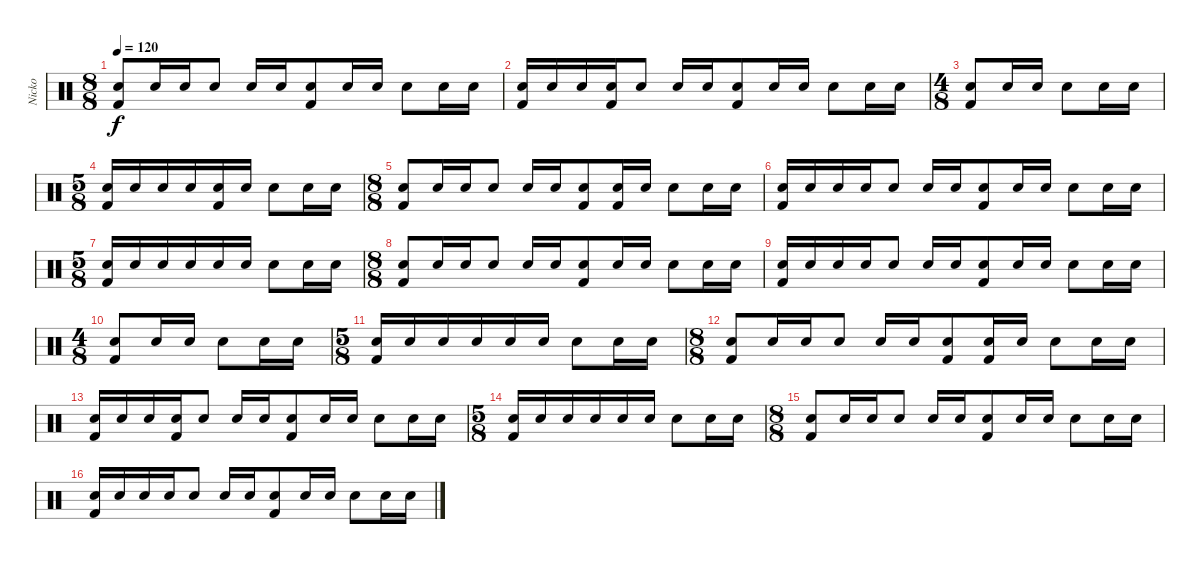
\track ("Nicko" "Nicko") {instrument percussion}
\staff {score}
\articulation defaults
\ts (8 8)
\tempo 120
\clef neutral
\ks c
("Electric Snare (hit)" "Kick (hit) 2").8{dy f} "Electric Snare (hit)".16 "Electric Snare (hit)".16 "Electric Snare (hit)".8 "Electric Snare (hit)".16 "Electric Snare (hit)".16 ("Electric Snare (hit)" "Kick (hit) 2").8 "Electric Snare (hit)".16 "Electric Snare (hit)".16 "Electric Snare (hit)".8 "Electric Snare (hit)".16 "Electric Snare (hit)".16 |
("Electric Snare (hit)" "Kick (hit) 2").16 "Electric Snare (hit)".16 "Electric Snare (hit)".16 ("Electric Snare (hit)" "Kick (hit) 2").16 "Electric Snare (hit)".8 "Electric Snare (hit)".16 "Electric Snare (hit)".16 ("Electric Snare (hit)" "Kick (hit) 2").8 "Electric Snare (hit)".16 "Electric Snare (hit)".16 "Electric Snare (hit)".8 "Electric Snare (hit)".16 "Electric Snare (hit)".16 |
\ts (4 8)
("Electric Snare (hit)" "Kick (hit) 2").8 "Electric Snare (hit)".16 "Electric Snare (hit)".16 "Electric Snare (hit)".8 "Electric Snare (hit)".16 "Electric Snare (hit)".16 |
\ts (5 8)
("Electric Snare (hit)" "Kick (hit) 2").16 "Electric Snare (hit)".16 "Electric Snare (hit)".16 "Electric Snare (hit)".16 ("Electric Snare (hit)" "Kick (hit) 2").16 "Electric Snare (hit)".16 "Electric Snare (hit)".8 "Electric Snare (hit)".16 "Electric Snare (hit)".16 |
\ts (8 8)
("Electric Snare (hit)" "Kick (hit) 2").8 "Electric Snare (hit)".16 "Electric Snare (hit)".16 "Electric Snare (hit)".8 "Electric Snare (hit)".16 "Electric Snare (hit)".16 ("Electric Snare (hit)" "Kick (hit) 2").8 ("Electric Snare (hit)" "Kick (hit) 2").16 "Electric Snare (hit)".16 "Electric Snare (hit)".8 "Electric Snare (hit)".16 "Electric Snare (hit)".16 |
("Electric Snare (hit)" "Kick (hit) 2").16 "Electric Snare (hit)".16 "Electric Snare (hit)".16 "Electric Snare (hit)".16 "Electric Snare (hit)".8 "Electric Snare (hit)".16 "Electric Snare (hit)".16 ("Electric Snare (hit)" "Kick (hit) 2").8 "Electric Snare (hit)".16 "Electric Snare (hit)".16 "Electric Snare (hit)".8 "Electric Snare (hit)".16 "Electric Snare (hit)".16 |
\ts (5 8)
("Electric Snare (hit)" "Kick (hit) 2").16 "Electric Snare (hit)".16 "Electric Snare (hit)".16 "Electric Snare (hit)".16 "Electric Snare (hit)".16 "Electric Snare (hit)".16 "Electric Snare (hit)".8 "Electric Snare (hit)".16 "Electric Snare (hit)".16 |
\ts (8 8)
("Electric Snare (hit)" "Kick (hit) 2").8 "Electric Snare (hit)".16 "Electric Snare (hit)".16 "Electric Snare (hit)".8 "Electric Snare (hit)".16 "Electric Snare (hit)".16 ("Electric Snare (hit)" "Kick (hit) 2").8 "Electric Snare (hit)".16 "Electric Snare (hit)".16 "Electric Snare (hit)".8 "Electric Snare (hit)".16 "Electric Snare (hit)".16 |
("Electric Snare (hit)" "Kick (hit) 2").16 "Electric Snare (hit)".16 "Electric Snare (hit)".16 "Electric Snare (hit)".16 "Electric Snare (hit)".8 "Electric Snare (hit)".16 "Electric Snare (hit)".16 ("Electric Snare (hit)" "Kick (hit) 2").8 "Electric Snare (hit)".16 "Electric Snare (hit)".16 "Electric Snare (hit)".8 "Electric Snare (hit)".16 "Electric Snare (hit)".16 |
\ts (4 8)
("Electric Snare (hit)" "Kick (hit) 2").8 "Electric Snare (hit)".16 "Electric Snare (hit)".16 "Electric Snare (hit)".8 "Electric Snare (hit)".16 "Electric Snare (hit)".16 |
\ts (5 8)
("Electric Snare (hit)" "Kick (hit) 2").16 "Electric Snare (hit)".16 "Electric Snare (hit)".16 "Electric Snare (hit)".16 "Electric Snare (hit)".16 "Electric Snare (hit)".16 "Electric Snare (hit)".8 "Electric Snare (hit)".16 "Electric Snare (hit)".16 |
\ts (8 8)
("Electric Snare (hit)" "Kick (hit) 2").8 "Electric Snare (hit)".16 "Electric Snare (hit)".16 "Electric Snare (hit)".8 "Electric Snare (hit)".16 "Electric Snare (hit)".16 ("Electric Snare (hit)" "Kick (hit) 2").8 ("Electric Snare (hit)" "Kick (hit) 2").16 "Electric Snare (hit)".16 "Electric Snare (hit)".8 "Electric Snare (hit)".16 "Electric Snare (hit)".16 |
("Electric Snare (hit)" "Kick (hit) 2").16 "Electric Snare (hit)".16 "Electric Snare (hit)".16 ("Electric Snare (hit)" "Kick (hit) 2").16 "Electric Snare (hit)".8 "Electric Snare (hit)".16 "Electric Snare (hit)".16 ("Electric Snare (hit)" "Kick (hit) 2").8 "Electric Snare (hit)".16 "Electric Snare (hit)".16 "Electric Snare (hit)".8 "Electric Snare (hit)".16 "Electric Snare (hit)".16 |
\ts (5 8)
("Electric Snare (hit)" "Kick (hit) 2").16 "Electric Snare (hit)".16 "Electric Snare (hit)".16 "Electric Snare (hit)".16 "Electric Snare (hit)".16 "Electric Snare (hit)".16 "Electric Snare (hit)".8 "Electric Snare (hit)".16 "Electric Snare (hit)".16 |
\ts (8 8)
("Electric Snare (hit)" "Kick (hit) 2").8 "Electric Snare (hit)".16 "Electric Snare (hit)".16 "Electric Snare (hit)".8 "Electric Snare (hit)".16 "Electric Snare (hit)".16 ("Electric Snare (hit)" "Kick (hit) 2").8 "Electric Snare (hit)".16 "Electric Snare (hit)".16 "Electric Snare (hit)".8 "Electric Snare (hit)".16 "Electric Snare (hit)".16 |
("Electric Snare (hit)" "Kick (hit) 2").16 "Electric Snare (hit)".16 "Electric Snare (hit)".16 "Electric Snare (hit)".16 "Electric Snare (hit)".8 "Electric Snare (hit)".16 "Electric Snare (hit)".16 ("Electric Snare (hit)" "Kick (hit) 2").8 "Electric Snare (hit)".16 "Electric Snare (hit)".16 "Electric Snare (hit)".8 "Electric Snare (hit)".16 "Electric Snare (hit)".16
